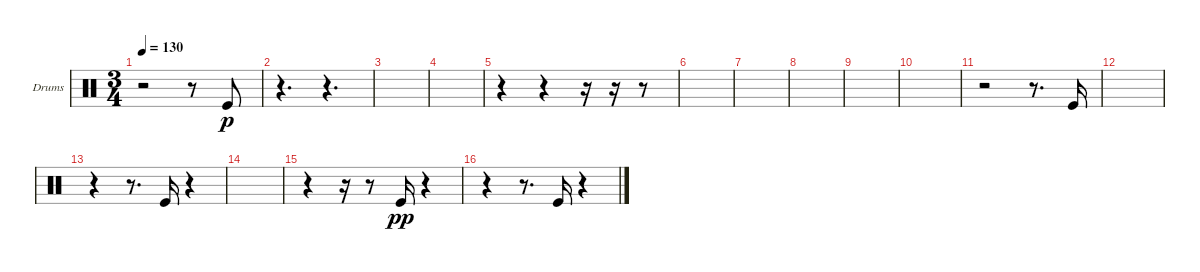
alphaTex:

\bracketExtendMode groupsimilarinstruments
\firstSystemTrackNameOrientation horizontal
\otherSystemsTrackNameOrientation horizontal
\track ("Kick" "Drums") {instrument percussion}
\staff {score}
\articulation defaults
\ts (3 4)
\tempo 130
\clef neutral
\ks c
r.2{dy p} r.8 "Kick (hit)".8 |
r.4{d} r.4{d} |
|
|
r.4 r.4 r.16 r.16 r.8 |
|
|
|
|
|
r.2 r.8{d} "Kick (hit)".16 |
|
r.4 r.8{d} "Kick (hit)".16 r.4 |
|
r.4 r.16 r.8 "Kick (hit)".16{dy pp} r.4 |
r.4 r.8{d} "Kick (hit)".16 r.4
